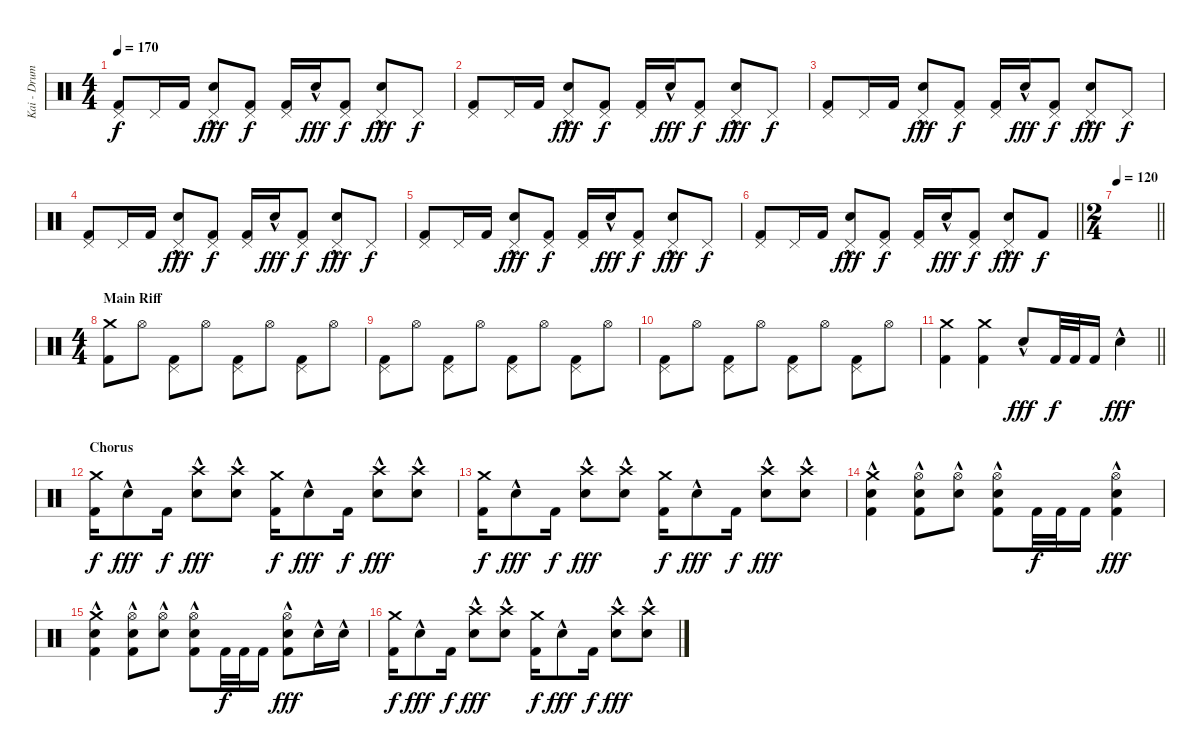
\track ("Kai - Drums" "Kai - Drum") {instrument percussion}
\staff {score}
\articulation defaults
\ts (4 4)
\tempo 170
\clef neutral
\ks c
("Pedal Hi-Hat (hit)" "Kick (hit) 2").8{dy f} "Pedal Hi-Hat (hit)".16 "Kick (hit) 2".16 ("Pedal Hi-Hat (hit)" "Electric Snare (hit)"{hac}).8{dy fff} ("Pedal Hi-Hat (hit)" "Kick (hit) 2").8{dy f} ("Pedal Hi-Hat (hit)" "Kick (hit) 2").16 "Electric Snare (hit)"{hac}.16{dy fff} ("Pedal Hi-Hat (hit)" "Kick (hit) 2").8{dy f} ("Pedal Hi-Hat (hit)" "Electric Snare (hit)"{hac}).8{dy fff} "Pedal Hi-Hat (hit)".8{dy f} |
("Pedal Hi-Hat (hit)" "Kick (hit) 2").8 "Pedal Hi-Hat (hit)".16 "Kick (hit) 2".16 ("Pedal Hi-Hat (hit)" "Electric Snare (hit)"{hac}).8{dy fff} ("Pedal Hi-Hat (hit)" "Kick (hit) 2").8{dy f} ("Pedal Hi-Hat (hit)" "Kick (hit) 2").16 "Electric Snare (hit)"{hac}.16{dy fff} ("Pedal Hi-Hat (hit)" "Kick (hit) 2").8{dy f} ("Pedal Hi-Hat (hit)" "Electric Snare (hit)"{hac}).8{dy fff} "Pedal Hi-Hat (hit)".8{dy f} |
("Pedal Hi-Hat (hit)" "Kick (hit) 2").8 "Pedal Hi-Hat (hit)".16 "Kick (hit) 2".16 ("Pedal Hi-Hat (hit)" "Electric Snare (hit)"{hac}).8{dy fff} ("Pedal Hi-Hat (hit)" "Kick (hit) 2").8{dy f} ("Pedal Hi-Hat (hit)" "Kick (hit) 2").16 "Electric Snare (hit)"{hac}.16{dy fff} ("Pedal Hi-Hat (hit)" "Kick (hit) 2").8{dy f} ("Pedal Hi-Hat (hit)" "Electric Snare (hit)"{hac}).8{dy fff} "Pedal Hi-Hat (hit)".8{dy f} |
("Pedal Hi-Hat (hit)" "Kick (hit) 2").8 "Pedal Hi-Hat (hit)".16 "Kick (hit) 2".16 ("Pedal Hi-Hat (hit)" "Electric Snare (hit)"{hac}).8{dy fff} ("Pedal Hi-Hat (hit)" "Kick (hit) 2").8{dy f} ("Pedal Hi-Hat (hit)" "Kick (hit) 2").16 "Electric Snare (hit)"{hac}.16{dy fff} ("Pedal Hi-Hat (hit)" "Kick (hit) 2").8{dy f} ("Pedal Hi-Hat (hit)" "Electric Snare (hit)"{hac}).8{dy fff} "Pedal Hi-Hat (hit)".8{dy f} |
("Pedal Hi-Hat (hit)" "Kick (hit) 2").8 "Pedal Hi-Hat (hit)".16 "Kick (hit) 2".16 ("Pedal Hi-Hat (hit)" "Electric Snare (hit)"{hac}).8{dy fff} ("Pedal Hi-Hat (hit)" "Kick (hit) 2").8{dy f} ("Pedal Hi-Hat (hit)" "Kick (hit) 2").16 "Electric Snare (hit)"{hac}.16{dy fff} ("Pedal Hi-Hat (hit)" "Kick (hit) 2").8{dy f} ("Pedal Hi-Hat (hit)" "Electric Snare (hit)"{hac}).8{dy fff} "Pedal Hi-Hat (hit)".8{dy f} |
\barLineRight lightlight
("Pedal Hi-Hat (hit)" "Kick (hit) 2").8 "Pedal Hi-Hat (hit)".16 "Kick (hit) 2".16 ("Pedal Hi-Hat (hit)" "Electric Snare (hit)"{hac}).8{dy fff} ("Pedal Hi-Hat (hit)" "Kick (hit) 2").8{dy f} ("Pedal Hi-Hat (hit)" "Kick (hit) 2").16 "Electric Snare (hit)"{hac}.16{dy fff} ("Pedal Hi-Hat (hit)" "Kick (hit) 2").8{dy f} ("Pedal Hi-Hat (hit)" "Electric Snare (hit)"{hac}).8{dy fff} "Kick (hit) 2".8{dy f} |
\ts (2 4)
\tempo 120
\barLineRight lightlight
|
\ts (4 4)
\section ("" "Main Riff")
("Crash medium (hit)" "Kick (hit) 2").8 "Hi-Hat (open)".8 ("Pedal Hi-Hat (hit)" "Kick (hit) 2").8 "Hi-Hat (open)".8 ("Pedal Hi-Hat (hit)" "Kick (hit) 2").8 "Hi-Hat (open)".8 ("Pedal Hi-Hat (hit)" "Kick (hit) 2").8 "Hi-Hat (open)".8 |
("Pedal Hi-Hat (hit)" "Kick (hit) 2").8 "Hi-Hat (open)".8 ("Pedal Hi-Hat (hit)" "Kick (hit) 2").8 "Hi-Hat (open)".8 ("Pedal Hi-Hat (hit)" "Kick (hit) 2").8 "Hi-Hat (open)".8 ("Pedal Hi-Hat (hit)" "Kick (hit) 2").8 "Hi-Hat (open)".8 |
("Pedal Hi-Hat (hit)" "Kick (hit) 2").8 "Hi-Hat (open)".8 ("Pedal Hi-Hat (hit)" "Kick (hit) 2").8 "Hi-Hat (open)".8 ("Pedal Hi-Hat (hit)" "Kick (hit) 2").8 "Hi-Hat (open)".8 ("Pedal Hi-Hat (hit)" "Kick (hit) 2").8 "Hi-Hat (open)".8 |
\barLineRight lightlight
("Crash medium (hit)" "Kick (hit) 2").4 ("Crash medium (hit)" "Kick (hit) 2").4 "Electric Snare (hit)"{hac}.8{dy fff} "Kick (hit) 2".32{dy f} "Kick (hit) 2".32 "Kick (hit) 2".16 "Electric Snare (hit)"{hac}.4{dy fff} |
\section ("" "Chorus")
("Crash medium (hit)" "Kick (hit) 2").16{dy f} "Electric Snare (hit)"{hac}.8{dy fff} "Kick (hit) 2".16{dy f} ("Crash high (hit)" "Electric Snare (hit)"{hac}).8{dy fff} ("Crash high (hit)" "Electric Snare (hit)"{hac}).8 ("Crash medium (hit)" "Kick (hit) 2").16{dy f} "Electric Snare (hit)"{hac}.8{dy fff} "Kick (hit) 2".16{dy f} ("Crash high (hit)" "Electric Snare (hit)"{hac}).8{dy fff} ("Crash high (hit)" "Electric Snare (hit)"{hac}).8 |
("Crash medium (hit)" "Kick (hit) 2").16{dy f} "Electric Snare (hit)"{hac}.8{dy fff} "Kick (hit) 2".16{dy f} ("Crash high (hit)" "Electric Snare (hit)"{hac}).8{dy fff} ("Crash high (hit)" "Electric Snare (hit)"{hac}).8 ("Crash medium (hit)" "Kick (hit) 2").16{dy f} "Electric Snare (hit)"{hac}.8{dy fff} "Kick (hit) 2".16{dy f} ("Crash high (hit)" "Electric Snare (hit)"{hac}).8{dy fff} ("Crash high (hit)" "Electric Snare (hit)"{hac}).8 |
("Crash medium (hit)" "Electric Snare (hit)"{hac} "Kick (hit) 2").4 ("Hi-Hat (open)" "Electric Snare (hit)"{hac} "Kick (hit) 2").8 ("Hi-Hat (open)" "Electric Snare (hit)"{hac}).8 ("Hi-Hat (open)" "Electric Snare (hit)"{hac} "Kick (hit) 2").8 "Kick (hit) 2".32{dy f} "Kick (hit) 2".32 "Kick (hit) 2".16 ("Hi-Hat (open)" "Electric Snare (hit)"{hac} "Kick (hit) 2").4{dy fff} |
("Crash medium (hit)" "Electric Snare (hit)"{hac} "Kick (hit) 2").4 ("Hi-Hat (open)" "Electric Snare (hit)"{hac} "Kick (hit) 2").8 ("Hi-Hat (open)" "Electric Snare (hit)"{hac}).8 ("Hi-Hat (open)" "Electric Snare (hit)"{hac} "Kick (hit) 2").8 "Kick (hit) 2".32{dy f} "Kick (hit) 2".32 "Kick (hit) 2".16 ("Hi-Hat (open)" "Electric Snare (hit)"{hac} "Kick (hit) 2").8{dy fff} "Electric Snare (hit)"{hac}.16 "Electric Snare (hit)"{hac}.16 |
("Crash medium (hit)" "Kick (hit) 2").16{dy f} "Electric Snare (hit)"{hac}.8{dy fff} "Kick (hit) 2".16{dy f} ("Crash high (hit)" "Electric Snare (hit)"{hac}).8{dy fff} ("Crash high (hit)" "Electric Snare (hit)"{hac}).8 ("Crash medium (hit)" "Kick (hit) 2").16{dy f} "Electric Snare (hit)"{hac}.8{dy fff} "Kick (hit) 2".16{dy f} ("Crash high (hit)" "Electric Snare (hit)"{hac}).8{dy fff} ("Crash high (hit)" "Electric Snare (hit)"{hac}).8
